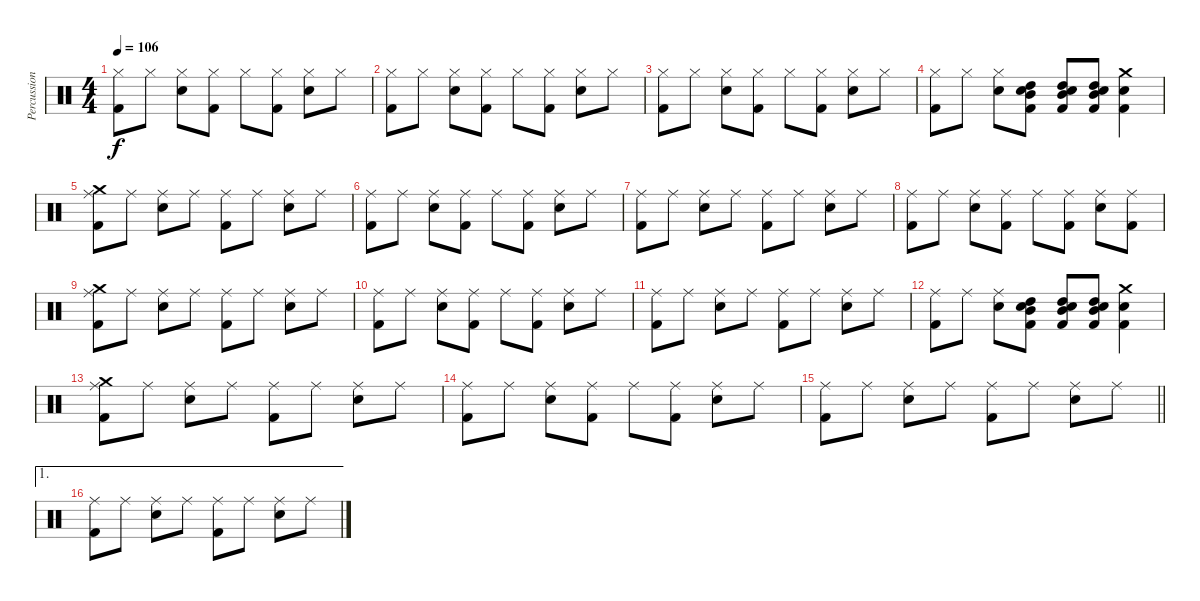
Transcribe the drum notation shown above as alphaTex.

\track ("Percussion" "Percussion") {instrument percussion}
\staff {score}
\articulation defaults
\ts (4 4)
\tempo 106
\clef neutral
\ks c
("Hi-Hat (closed)" "Kick (hit) 2").8{dy f} "Hi-Hat (closed)".8 ("Hi-Hat (closed)" "Snare (hit) 2").8 ("Hi-Hat (closed)" "Kick (hit) 2").8 "Hi-Hat (closed)".8 ("Hi-Hat (closed)" "Kick (hit) 2").8 ("Hi-Hat (closed)" "Snare (hit) 2").8 "Hi-Hat (closed)".8 |
("Hi-Hat (closed)" "Kick (hit) 2").8 "Hi-Hat (closed)".8 ("Hi-Hat (closed)" "Snare (hit) 2").8 ("Hi-Hat (closed)" "Kick (hit) 2").8 "Hi-Hat (closed)".8 ("Hi-Hat (closed)" "Kick (hit) 2").8 ("Hi-Hat (closed)" "Snare (hit) 2").8 "Hi-Hat (closed)".8 |
("Hi-Hat (closed)" "Kick (hit) 2").8 "Hi-Hat (closed)".8 ("Hi-Hat (closed)" "Snare (hit) 2").8 ("Hi-Hat (closed)" "Kick (hit) 2").8 "Hi-Hat (closed)".8 ("Hi-Hat (closed)" "Kick (hit) 2").8 ("Hi-Hat (closed)" "Snare (hit) 2").8 "Hi-Hat (closed)".8 |
("Hi-Hat (closed)" "Kick (hit) 2").8 "Hi-Hat (closed)".8 ("Hi-Hat (closed)" "Snare (hit) 2").8 ("Electric Snare (hit)" "Kick (hit) 2" "High Tom (hit)" "Mid Tom (hit)").8 ("Electric Snare (hit)" "Kick (hit) 2" "High Tom (hit)" "Mid Tom (hit)").8 ("Electric Snare (hit)" "Kick (hit) 2" "High Tom (hit)" "Mid Tom (hit)").8 ("Electric Snare (hit)" "Kick (hit) 2" "Crash medium (hit)").4 |
("Ride (middle)" "Kick (hit) 2" "Crash medium (hit)").8 "Ride (middle)".8 ("Ride (middle)" "Electric Snare (hit)").8 "Ride (middle)".8 ("Ride (middle)" "Kick (hit) 2").8 "Ride (middle)".8 ("Ride (middle)" "Electric Snare (hit)").8 "Ride (middle)".8 |
("Ride (middle)" "Kick (hit) 2").8 "Ride (middle)".8 ("Ride (middle)" "Electric Snare (hit)").8 ("Ride (middle)" "Kick (hit) 2").8 "Ride (middle)".8 ("Ride (middle)" "Kick (hit) 2").8 ("Ride (middle)" "Electric Snare (hit)").8 "Ride (middle)".8 |
("Ride (middle)" "Kick (hit) 2").8 "Ride (middle)".8 ("Ride (middle)" "Electric Snare (hit)").8 "Ride (middle)".8 ("Ride (middle)" "Kick (hit) 2").8 "Ride (middle)".8 ("Ride (middle)" "Electric Snare (hit)").8 "Ride (middle)".8 |
("Ride (middle)" "Kick (hit) 2").8 "Ride (middle)".8 ("Ride (middle)" "Electric Snare (hit)").8 ("Ride (middle)" "Kick (hit) 2").8 "Ride (middle)".8 ("Ride (middle)" "Kick (hit) 2").8 ("Ride (middle)" "Electric Snare (hit)").8 ("Ride (middle)" "Kick (hit) 2").8 |
("Ride (middle)" "Kick (hit) 2" "Crash medium (hit)").8 "Ride (middle)".8 ("Ride (middle)" "Electric Snare (hit)").8 "Ride (middle)".8 ("Ride (middle)" "Kick (hit) 2").8 "Ride (middle)".8 ("Ride (middle)" "Electric Snare (hit)").8 "Ride (middle)".8 |
("Ride (middle)" "Kick (hit) 2").8 "Ride (middle)".8 ("Ride (middle)" "Electric Snare (hit)").8 ("Ride (middle)" "Kick (hit) 2").8 "Ride (middle)".8 ("Ride (middle)" "Kick (hit) 2").8 ("Ride (middle)" "Electric Snare (hit)").8 "Ride (middle)".8 |
("Ride (middle)" "Kick (hit) 2").8 "Ride (middle)".8 ("Ride (middle)" "Electric Snare (hit)").8 "Ride (middle)".8 ("Ride (middle)" "Kick (hit) 2").8 "Ride (middle)".8 ("Ride (middle)" "Electric Snare (hit)").8 "Ride (middle)".8 |
("Ride (middle)" "Kick (hit) 2").8 "Ride (middle)".8 ("Ride (middle)" "Snare (hit) 2").8 ("Electric Snare (hit)" "Kick (hit) 2" "High Tom (hit)" "Mid Tom (hit)").8 ("Electric Snare (hit)" "Kick (hit) 2" "High Tom (hit)" "Mid Tom (hit)").8 ("Electric Snare (hit)" "Kick (hit) 2" "High Tom (hit)" "Mid Tom (hit)").8 ("Electric Snare (hit)" "Kick (hit) 2" "Crash medium (hit)").4 |
("Ride (middle)" "Kick (hit) 2" "Crash medium (hit)").8 "Ride (middle)".8 ("Ride (middle)" "Electric Snare (hit)").8 "Ride (middle)".8 ("Ride (middle)" "Kick (hit) 2").8 "Ride (middle)".8 ("Ride (middle)" "Electric Snare (hit)").8 "Ride (middle)".8 |
("Ride (middle)" "Kick (hit) 2").8 "Ride (middle)".8 ("Ride (middle)" "Electric Snare (hit)").8 ("Ride (middle)" "Kick (hit) 2").8 "Ride (middle)".8 ("Ride (middle)" "Kick (hit) 2").8 ("Ride (middle)" "Electric Snare (hit)").8 "Ride (middle)".8 |
\barLineRight lightlight
("Ride (middle)" "Kick (hit) 2").8 "Ride (middle)".8 ("Ride (middle)" "Electric Snare (hit)").8 "Ride (middle)".8 ("Ride (middle)" "Kick (hit) 2").8 "Ride (middle)".8 ("Ride (middle)" "Electric Snare (hit)").8 "Ride (middle)".8 |
\ae 1
("Ride (middle)" "Kick (hit) 2").8 "Ride (middle)".8 ("Ride (middle)" "Electric Snare (hit)").8 "Ride (middle)".8 ("Ride (middle)" "Kick (hit) 2").8 "Ride (middle)".8 ("Ride (middle)" "Electric Snare (hit)").8 "Ride (middle)".8
